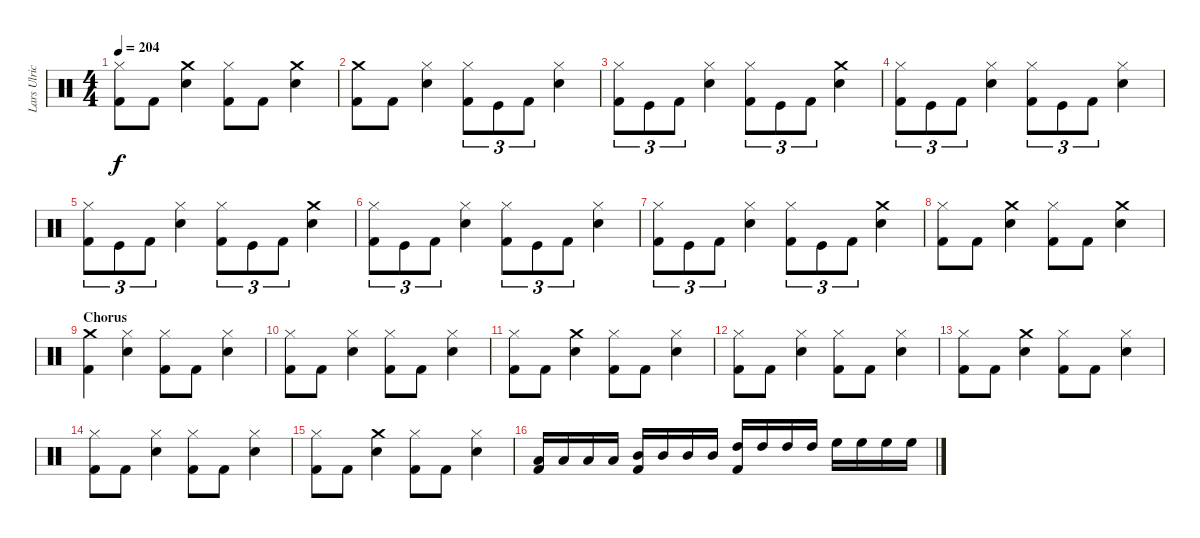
\track ("Lars Ulrich (Drums)" "Lars Ulric") {instrument percussion}
\staff {score}
\articulation defaults
\ts (4 4)
\tempo 204
\clef neutral
\ks c
("Kick (hit) 2" "Hi-Hat (closed)").8{dy f} "Kick (hit) 2".8 ("Crash medium (hit)" "Snare (hit) 2").4 ("Kick (hit) 2" "Hi-Hat (closed)").8 "Kick (hit) 2".8 ("Crash medium (hit)" "Snare (hit) 2").4 |
("Crash medium (hit)" "Kick (hit) 2").8 "Kick (hit) 2".8 ("Snare (hit) 2" "Hi-Hat (closed)").4 ("Hi-Hat (closed)" "Kick (hit) 2").8{tu (3 2)} "Kick (hit)".8{tu (3 2)} "Kick (hit) 2".8{tu (3 2)} ("Hi-Hat (closed)" "Snare (hit) 2").4 |
("Hi-Hat (closed)" "Kick (hit) 2").8{tu (3 2)} "Kick (hit)".8{tu (3 2)} "Kick (hit) 2".8{tu (3 2)} ("Snare (hit) 2" "Hi-Hat (closed)").4 ("Hi-Hat (closed)" "Kick (hit) 2").8{tu (3 2)} "Kick (hit)".8{tu (3 2)} "Kick (hit) 2".8{tu (3 2)} ("Crash medium (hit)" "Snare (hit) 2").4 |
("Hi-Hat (closed)" "Kick (hit) 2").8{tu (3 2)} "Kick (hit)".8{tu (3 2)} "Kick (hit) 2".8{tu (3 2)} ("Snare (hit) 2" "Hi-Hat (closed)").4 ("Hi-Hat (closed)" "Kick (hit) 2").8{tu (3 2)} "Kick (hit)".8{tu (3 2)} "Kick (hit) 2".8{tu (3 2)} ("Hi-Hat (closed)" "Snare (hit) 2").4 |
("Hi-Hat (closed)" "Kick (hit) 2").8{tu (3 2)} "Kick (hit)".8{tu (3 2)} "Kick (hit) 2".8{tu (3 2)} ("Snare (hit) 2" "Hi-Hat (closed)").4 ("Hi-Hat (closed)" "Kick (hit) 2").8{tu (3 2)} "Kick (hit)".8{tu (3 2)} "Kick (hit) 2".8{tu (3 2)} ("Crash medium (hit)" "Snare (hit) 2").4 |
("Hi-Hat (closed)" "Kick (hit) 2").8{tu (3 2)} "Kick (hit)".8{tu (3 2)} "Kick (hit) 2".8{tu (3 2)} ("Snare (hit) 2" "Hi-Hat (closed)").4 ("Hi-Hat (closed)" "Kick (hit) 2").8{tu (3 2)} "Kick (hit)".8{tu (3 2)} "Kick (hit) 2".8{tu (3 2)} ("Hi-Hat (closed)" "Snare (hit) 2").4 |
("Hi-Hat (closed)" "Kick (hit) 2").8{tu (3 2)} "Kick (hit)".8{tu (3 2)} "Kick (hit) 2".8{tu (3 2)} ("Snare (hit) 2" "Hi-Hat (closed)").4 ("Hi-Hat (closed)" "Kick (hit) 2").8{tu (3 2)} "Kick (hit)".8{tu (3 2)} "Kick (hit) 2".8{tu (3 2)} ("Crash medium (hit)" "Snare (hit) 2").4 |
("Kick (hit) 2" "Hi-Hat (closed)").8 "Kick (hit) 2".8 ("Crash medium (hit)" "Snare (hit) 2").4 ("Kick (hit) 2" "Hi-Hat (closed)").8 "Kick (hit) 2".8 ("Crash medium (hit)" "Snare (hit) 2").4 |
\section ("" "Chorus")
("Kick (hit) 2" "Crash medium (hit)").4 ("Hi-Hat (closed)" "Snare (hit) 2").4 ("Hi-Hat (closed)" "Kick (hit) 2").8 "Kick (hit) 2".8 ("Snare (hit) 2" "Hi-Hat (closed)").4 |
("Kick (hit) 2" "Hi-Hat (closed)").8 "Kick (hit) 2".8 ("Snare (hit) 2" "Hi-Hat (closed)").4 ("Kick (hit) 2" "Hi-Hat (closed)").8 "Kick (hit) 2".8 ("Snare (hit) 2" "Hi-Hat (closed)").4 |
("Kick (hit) 2" "Hi-Hat (closed)").8 "Kick (hit) 2".8 ("Crash medium (hit)" "Snare (hit) 2").4 ("Kick (hit) 2" "Hi-Hat (closed)").8 "Kick (hit) 2".8 ("Snare (hit) 2" "Hi-Hat (closed)").4 |
("Kick (hit) 2" "Hi-Hat (closed)").8 "Kick (hit) 2".8 ("Snare (hit) 2" "Hi-Hat (closed)").4 ("Kick (hit) 2" "Hi-Hat (closed)").8 "Kick (hit) 2".8 ("Snare (hit) 2" "Hi-Hat (closed)").4 |
("Kick (hit) 2" "Hi-Hat (closed)").8 "Kick (hit) 2".8 ("Crash medium (hit)" "Snare (hit) 2").4 ("Kick (hit) 2" "Hi-Hat (closed)").8 "Kick (hit) 2".8 ("Snare (hit) 2" "Hi-Hat (closed)").4 |
("Kick (hit) 2" "Hi-Hat (closed)").8 "Kick (hit) 2".8 ("Snare (hit) 2" "Hi-Hat (closed)").4 ("Kick (hit) 2" "Hi-Hat (closed)").8 "Kick (hit) 2".8 ("Snare (hit) 2" "Hi-Hat (closed)").4 |
("Kick (hit) 2" "Hi-Hat (closed)").8 "Kick (hit) 2".8 ("Crash medium (hit)" "Snare (hit) 2").4 ("Kick (hit) 2" "Hi-Hat (closed)").8 "Kick (hit) 2".8 ("Snare (hit) 2" "Hi-Hat (closed)").4 |
("Low Tom (hit)" "Kick (hit) 2").16 "Low Tom (hit)".16 "Low Tom (hit)".16 "Low Tom (hit)".16 ("Mid Tom (hit)" "Kick (hit) 2").16 "Mid Tom (hit)".16 "Mid Tom (hit)".16 "Mid Tom (hit)".16 ("High Tom (hit)" "Kick (hit) 2").16 "High Tom (hit)".16 "High Tom (hit)".16 "High Tom (hit)".16 "High Floor Tom (hit)".16 "High Floor Tom (hit)".16 "High Floor Tom (hit)".16 "High Floor Tom (hit)".16
